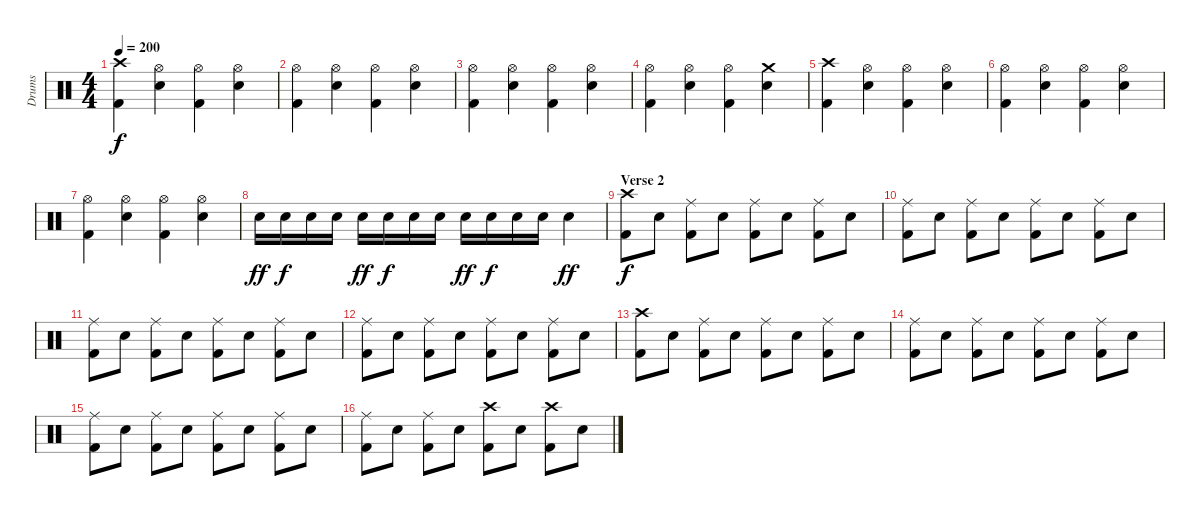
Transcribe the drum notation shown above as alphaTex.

\track ("Drums" "Drums") {instrument percussion}
\staff {score}
\articulation defaults
\ts (4 4)
\tempo 200
\clef neutral
\ks c
("Crash high (hit)" "Kick (hit) 2").4{dy f} ("Hi-Hat (open)" "Electric Snare (hit)").4 ("Hi-Hat (open)" "Kick (hit) 2").4 ("Hi-Hat (open)" "Electric Snare (hit)").4 |
("Hi-Hat (open)" "Kick (hit) 2").4 ("Hi-Hat (open)" "Electric Snare (hit)").4 ("Hi-Hat (open)" "Kick (hit) 2").4 ("Hi-Hat (open)" "Electric Snare (hit)").4 |
("Hi-Hat (open)" "Kick (hit) 2").4 ("Hi-Hat (open)" "Electric Snare (hit)").4 ("Hi-Hat (open)" "Kick (hit) 2").4 ("Hi-Hat (open)" "Electric Snare (hit)").4 |
("Hi-Hat (open)" "Kick (hit) 2").4 ("Hi-Hat (open)" "Electric Snare (hit)").4 ("Hi-Hat (open)" "Kick (hit) 2").4 ("Crash medium (hit)" "Electric Snare (hit)").4 |
("Crash high (hit)" "Kick (hit) 2").4 ("Hi-Hat (open)" "Electric Snare (hit)").4 ("Hi-Hat (open)" "Kick (hit) 2").4 ("Hi-Hat (open)" "Electric Snare (hit)").4 |
("Hi-Hat (open)" "Kick (hit) 2").4 ("Hi-Hat (open)" "Electric Snare (hit)").4 ("Hi-Hat (open)" "Kick (hit) 2").4 ("Hi-Hat (open)" "Electric Snare (hit)").4 |
("Hi-Hat (open)" "Kick (hit) 2").4 ("Hi-Hat (open)" "Electric Snare (hit)").4 ("Hi-Hat (open)" "Kick (hit) 2").4 ("Hi-Hat (open)" "Electric Snare (hit)").4 |
"Electric Snare (hit)".16{dy ff} "Electric Snare (hit)".16{dy f} "Electric Snare (hit)".16 "Electric Snare (hit)".16 "Electric Snare (hit)".16{dy ff} "Electric Snare (hit)".16{dy f} "Electric Snare (hit)".16 "Electric Snare (hit)".16 "Electric Snare (hit)".16{dy ff} "Electric Snare (hit)".16{dy f} "Electric Snare (hit)".16 "Electric Snare (hit)".16 "Electric Snare (hit)".4{dy ff} |
\section ("" "Verse 2")
("Crash high (hit)" "Kick (hit) 2").8{dy f} "Electric Snare (hit)".8 ("Ride (middle)" "Kick (hit) 2").8 "Electric Snare (hit)".8 ("Ride (middle)" "Kick (hit) 2").8 "Electric Snare (hit)".8 ("Ride (middle)" "Kick (hit) 2").8 "Electric Snare (hit)".8 |
("Ride (middle)" "Kick (hit) 2").8 "Electric Snare (hit)".8 ("Ride (middle)" "Kick (hit) 2").8 "Electric Snare (hit)".8 ("Ride (middle)" "Kick (hit) 2").8 "Electric Snare (hit)".8 ("Ride (middle)" "Kick (hit) 2").8 "Electric Snare (hit)".8 |
("Ride (middle)" "Kick (hit) 2").8 "Electric Snare (hit)".8 ("Ride (middle)" "Kick (hit) 2").8 "Electric Snare (hit)".8 ("Ride (middle)" "Kick (hit) 2").8 "Electric Snare (hit)".8 ("Ride (middle)" "Kick (hit) 2").8 "Electric Snare (hit)".8 |
("Ride (middle)" "Kick (hit) 2").8 "Electric Snare (hit)".8 ("Ride (middle)" "Kick (hit) 2").8 "Electric Snare (hit)".8 ("Ride (middle)" "Kick (hit) 2").8 "Electric Snare (hit)".8 ("Ride (middle)" "Kick (hit) 2").8 "Electric Snare (hit)".8 |
("Crash high (hit)" "Kick (hit) 2").8 "Electric Snare (hit)".8 ("Ride (middle)" "Kick (hit) 2").8 "Electric Snare (hit)".8 ("Ride (middle)" "Kick (hit) 2").8 "Electric Snare (hit)".8 ("Ride (middle)" "Kick (hit) 2").8 "Electric Snare (hit)".8 |
("Ride (middle)" "Kick (hit) 2").8 "Electric Snare (hit)".8 ("Ride (middle)" "Kick (hit) 2").8 "Electric Snare (hit)".8 ("Ride (middle)" "Kick (hit) 2").8 "Electric Snare (hit)".8 ("Ride (middle)" "Kick (hit) 2").8 "Electric Snare (hit)".8 |
("Ride (middle)" "Kick (hit) 2").8 "Electric Snare (hit)".8 ("Ride (middle)" "Kick (hit) 2").8 "Electric Snare (hit)".8 ("Ride (middle)" "Kick (hit) 2").8 "Electric Snare (hit)".8 ("Ride (middle)" "Kick (hit) 2").8 "Electric Snare (hit)".8 |
("Ride (middle)" "Kick (hit) 2").8 "Electric Snare (hit)".8 ("Ride (middle)" "Kick (hit) 2").8 "Electric Snare (hit)".8 ("Crash high (hit)" "Kick (hit) 2").8 "Electric Snare (hit)".8 ("Crash high (hit)" "Kick (hit) 2").8 "Electric Snare (hit)".8
